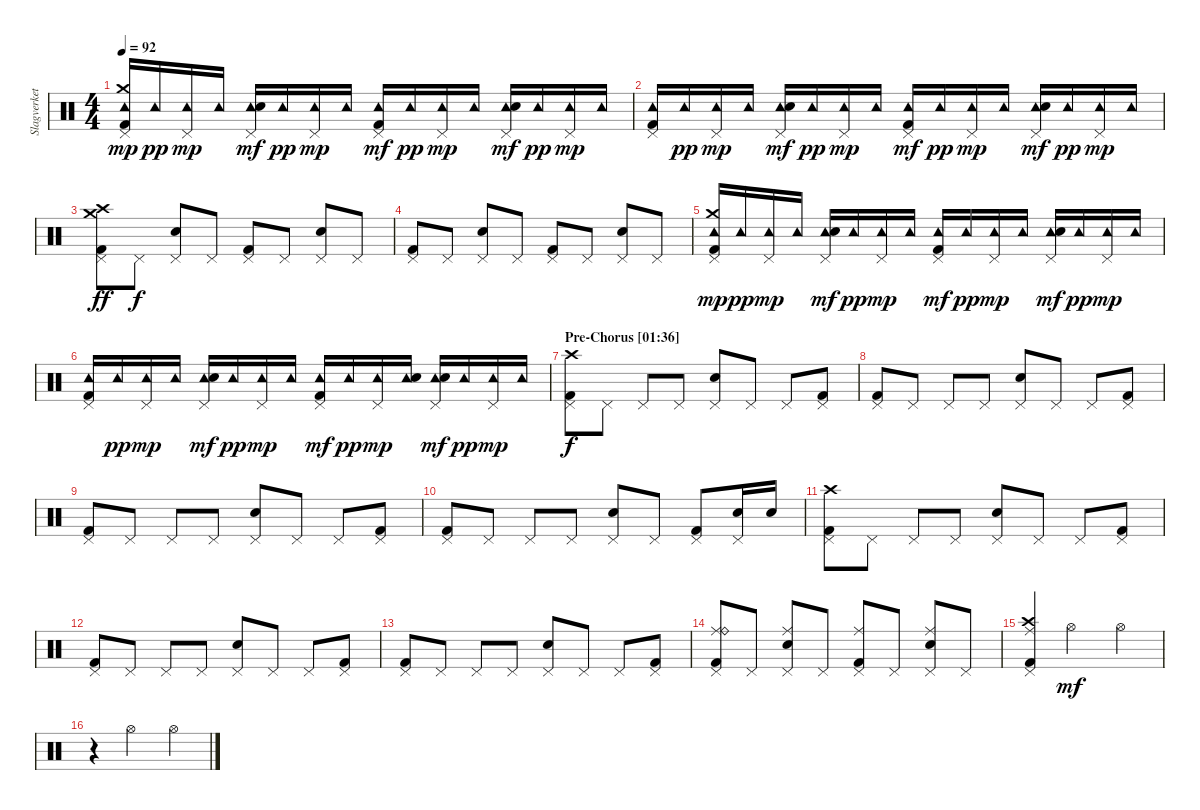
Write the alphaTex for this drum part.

\track ("Slagverket!" "Slagverket") {instrument percussion}
\staff {score}
\articulation defaults
\ts (4 4)
\tempo 92
\clef neutral
\ks c
("Pedal Hi-Hat (hit)" "Tambourine (hit)" "Crash medium (hit)" "Kick (hit) 2").16{dy mp} "Tambourine (hit)".16{dy pp} ("Pedal Hi-Hat (hit)" "Tambourine (hit)").16{dy mp} "Tambourine (hit)".16 ("Pedal Hi-Hat (hit)" "Tambourine (hit)" "Electric Snare (hit)").16{dy mf} "Tambourine (hit)".16{dy pp} ("Pedal Hi-Hat (hit)" "Tambourine (hit)").16{dy mp} "Tambourine (hit)".16 ("Pedal Hi-Hat (hit)" "Tambourine (hit)" "Kick (hit) 2").16{dy mf} "Tambourine (hit)".16{dy pp} ("Pedal Hi-Hat (hit)" "Tambourine (hit)").16{dy mp} "Tambourine (hit)".16 ("Pedal Hi-Hat (hit)" "Tambourine (hit)" "Electric Snare (hit)").16{dy mf} "Tambourine (hit)".16{dy pp} ("Pedal Hi-Hat (hit)" "Tambourine (hit)").16{dy mp} "Tambourine (hit)".16 |
("Pedal Hi-Hat (hit)" "Tambourine (hit)" "Kick (hit) 2").16 "Tambourine (hit)".16{dy pp} ("Pedal Hi-Hat (hit)" "Tambourine (hit)").16{dy mp} "Tambourine (hit)".16 ("Pedal Hi-Hat (hit)" "Tambourine (hit)" "Electric Snare (hit)").16{dy mf} "Tambourine (hit)".16{dy pp} ("Pedal Hi-Hat (hit)" "Tambourine (hit)").16{dy mp} "Tambourine (hit)".16 ("Pedal Hi-Hat (hit)" "Tambourine (hit)" "Kick (hit) 2").16{dy mf} "Tambourine (hit)".16{dy pp} ("Pedal Hi-Hat (hit)" "Tambourine (hit)").16{dy mp} "Tambourine (hit)".16 ("Pedal Hi-Hat (hit)" "Tambourine (hit)" "Electric Snare (hit)").16{dy mf} "Tambourine (hit)".16{dy pp} ("Pedal Hi-Hat (hit)" "Tambourine (hit)").16{dy mp} "Tambourine (hit)".16 |
("Pedal Hi-Hat (hit)" "Crash high (hit)" "Crash medium (hit)" "Kick (hit) 2").8{dy ff} "Pedal Hi-Hat (hit)".8{dy f} ("Pedal Hi-Hat (hit)" "Electric Snare (hit)").8 "Pedal Hi-Hat (hit)".8 ("Pedal Hi-Hat (hit)" "Kick (hit) 2").8 "Pedal Hi-Hat (hit)".8 ("Pedal Hi-Hat (hit)" "Electric Snare (hit)").8 "Pedal Hi-Hat (hit)".8 |
("Pedal Hi-Hat (hit)" "Kick (hit) 2").8 "Pedal Hi-Hat (hit)".8 ("Pedal Hi-Hat (hit)" "Electric Snare (hit)").8 "Pedal Hi-Hat (hit)".8 ("Pedal Hi-Hat (hit)" "Kick (hit) 2").8 "Pedal Hi-Hat (hit)".8 ("Pedal Hi-Hat (hit)" "Electric Snare (hit)").8 "Pedal Hi-Hat (hit)".8 |
("Pedal Hi-Hat (hit)" "Tambourine (hit)" "Crash medium (hit)" "Kick (hit) 2").16{dy mp} "Tambourine (hit)".16{dy pp} ("Pedal Hi-Hat (hit)" "Tambourine (hit)").16{dy mp} "Tambourine (hit)".16 ("Pedal Hi-Hat (hit)" "Tambourine (hit)" "Electric Snare (hit)").16{dy mf} "Tambourine (hit)".16{dy pp} ("Pedal Hi-Hat (hit)" "Tambourine (hit)").16{dy mp} "Tambourine (hit)".16 ("Pedal Hi-Hat (hit)" "Tambourine (hit)" "Kick (hit) 2").16{dy mf} "Tambourine (hit)".16{dy pp} ("Pedal Hi-Hat (hit)" "Tambourine (hit)").16{dy mp} "Tambourine (hit)".16 ("Pedal Hi-Hat (hit)" "Tambourine (hit)" "Electric Snare (hit)").16{dy mf} "Tambourine (hit)".16{dy pp} ("Pedal Hi-Hat (hit)" "Tambourine (hit)").16{dy mp} "Tambourine (hit)".16 |
("Pedal Hi-Hat (hit)" "Tambourine (hit)" "Kick (hit) 2").16 "Tambourine (hit)".16{dy pp} ("Pedal Hi-Hat (hit)" "Tambourine (hit)").16{dy mp} "Tambourine (hit)".16 ("Pedal Hi-Hat (hit)" "Tambourine (hit)" "Electric Snare (hit)").16{dy mf} "Tambourine (hit)".16{dy pp} ("Pedal Hi-Hat (hit)" "Tambourine (hit)").16{dy mp} "Tambourine (hit)".16 ("Pedal Hi-Hat (hit)" "Tambourine (hit)" "Kick (hit) 2").16{dy mf} "Tambourine (hit)".16{dy pp} ("Pedal Hi-Hat (hit)" "Tambourine (hit)").16{dy mp} ("Tambourine (hit)" "Electric Snare (hit)").16 ("Pedal Hi-Hat (hit)" "Tambourine (hit)" "Electric Snare (hit)").16{dy mf} "Tambourine (hit)".16{dy pp} ("Pedal Hi-Hat (hit)" "Tambourine (hit)").16{dy mp} "Tambourine (hit)".16 |
\section ("" "Pre-Chorus [01:36]")
("Pedal Hi-Hat (hit)" "Crash high (hit)" "Kick (hit) 2").8{dy f} "Pedal Hi-Hat (hit)".8 "Pedal Hi-Hat (hit)".8 "Pedal Hi-Hat (hit)".8 ("Pedal Hi-Hat (hit)" "Electric Snare (hit)").8 "Pedal Hi-Hat (hit)".8 "Pedal Hi-Hat (hit)".8 ("Pedal Hi-Hat (hit)" "Kick (hit) 2").8 |
("Pedal Hi-Hat (hit)" "Kick (hit) 2").8 "Pedal Hi-Hat (hit)".8 "Pedal Hi-Hat (hit)".8 "Pedal Hi-Hat (hit)".8 ("Pedal Hi-Hat (hit)" "Electric Snare (hit)").8 "Pedal Hi-Hat (hit)".8 "Pedal Hi-Hat (hit)".8 ("Pedal Hi-Hat (hit)" "Kick (hit) 2").8 |
("Pedal Hi-Hat (hit)" "Kick (hit) 2").8 "Pedal Hi-Hat (hit)".8 "Pedal Hi-Hat (hit)".8 "Pedal Hi-Hat (hit)".8 ("Pedal Hi-Hat (hit)" "Electric Snare (hit)").8 "Pedal Hi-Hat (hit)".8 "Pedal Hi-Hat (hit)".8 ("Pedal Hi-Hat (hit)" "Kick (hit) 2").8 |
("Pedal Hi-Hat (hit)" "Kick (hit) 2").8 "Pedal Hi-Hat (hit)".8 "Pedal Hi-Hat (hit)".8 "Pedal Hi-Hat (hit)".8 ("Pedal Hi-Hat (hit)" "Electric Snare (hit)").8 "Pedal Hi-Hat (hit)".8 ("Pedal Hi-Hat (hit)" "Kick (hit) 2").8 ("Pedal Hi-Hat (hit)" "Electric Snare (hit)").16 "Electric Snare (hit)".16 |
("Pedal Hi-Hat (hit)" "Crash high (hit)" "Kick (hit) 2").8 "Pedal Hi-Hat (hit)".8 "Pedal Hi-Hat (hit)".8 "Pedal Hi-Hat (hit)".8 ("Pedal Hi-Hat (hit)" "Electric Snare (hit)").8 "Pedal Hi-Hat (hit)".8 "Pedal Hi-Hat (hit)".8 ("Pedal Hi-Hat (hit)" "Kick (hit) 2").8 |
("Pedal Hi-Hat (hit)" "Kick (hit) 2").8 "Pedal Hi-Hat (hit)".8 "Pedal Hi-Hat (hit)".8 "Pedal Hi-Hat (hit)".8 ("Pedal Hi-Hat (hit)" "Electric Snare (hit)").8 "Pedal Hi-Hat (hit)".8 "Pedal Hi-Hat (hit)".8 ("Pedal Hi-Hat (hit)" "Kick (hit) 2").8 |
("Pedal Hi-Hat (hit)" "Kick (hit) 2").8 "Pedal Hi-Hat (hit)".8 "Pedal Hi-Hat (hit)".8 "Pedal Hi-Hat (hit)".8 ("Pedal Hi-Hat (hit)" "Electric Snare (hit)").8 "Pedal Hi-Hat (hit)".8 "Pedal Hi-Hat (hit)".8 ("Pedal Hi-Hat (hit)" "Kick (hit) 2").8 |
("Pedal Hi-Hat (hit)" "Ride (middle)" "Ride (bell)" "Kick (hit) 2").8 "Pedal Hi-Hat (hit)".8 ("Pedal Hi-Hat (hit)" "Ride (middle)" "Electric Snare (hit)").8 "Pedal Hi-Hat (hit)".8 ("Pedal Hi-Hat (hit)" "Ride (middle)" "Kick (hit) 2").8 "Pedal Hi-Hat (hit)".8 ("Pedal Hi-Hat (hit)" "Ride (middle)" "Electric Snare (hit)").8 "Pedal Hi-Hat (hit)".8 |
("Pedal Hi-Hat (hit)" "Ride (middle)" "Crash high (hit)" "Kick (hit) 2").4 "Hi-Hat (open)".2{dy mf} "Hi-Hat (open)".4 |
r.4 "Hi-Hat (open)".2 "Hi-Hat (open)".4
